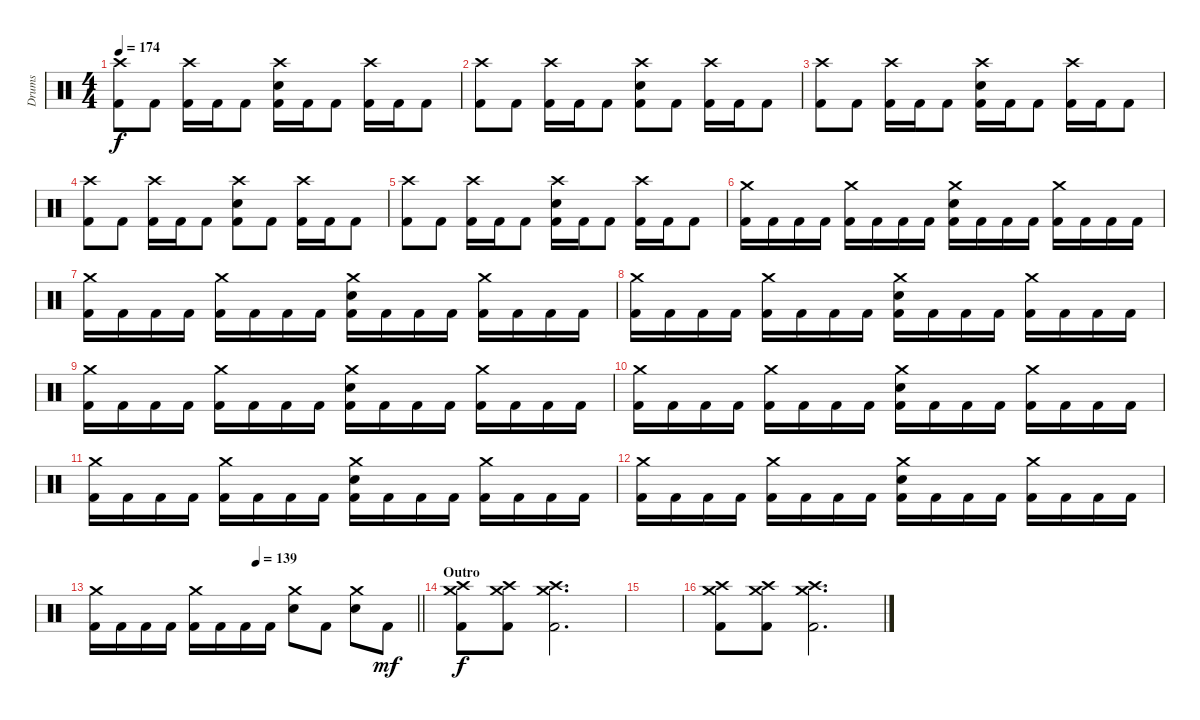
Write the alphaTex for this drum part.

\track ("Drums" "Drums") {instrument percussion}
\staff {score}
\articulation defaults
\ts (4 4)
\tempo 174
\clef neutral
\ks c
("Crash high (hit)" "Kick (hit) 2").8{dy f} "Kick (hit) 2".8 ("Crash high (hit)" "Kick (hit) 2").16 "Kick (hit) 2".16 "Kick (hit) 2".8 ("Crash high (hit)" "Electric Snare (hit)" "Kick (hit) 2").16 "Kick (hit) 2".16 "Kick (hit) 2".8 ("Crash high (hit)" "Kick (hit) 2").16 "Kick (hit) 2".16 "Kick (hit) 2".8 |
("Crash high (hit)" "Kick (hit) 2").8 "Kick (hit) 2".8 ("Crash high (hit)" "Kick (hit) 2").16 "Kick (hit) 2".16 "Kick (hit) 2".8 ("Crash high (hit)" "Electric Snare (hit)" "Kick (hit) 2").8 "Kick (hit) 2".8 ("Crash high (hit)" "Kick (hit) 2").16 "Kick (hit) 2".16 "Kick (hit) 2".8 |
("Crash high (hit)" "Kick (hit) 2").8 "Kick (hit) 2".8 ("Crash high (hit)" "Kick (hit) 2").16 "Kick (hit) 2".16 "Kick (hit) 2".8 ("Crash high (hit)" "Electric Snare (hit)" "Kick (hit) 2").16 "Kick (hit) 2".16 "Kick (hit) 2".8 ("Crash high (hit)" "Kick (hit) 2").16 "Kick (hit) 2".16 "Kick (hit) 2".8 |
("Crash high (hit)" "Kick (hit) 2").8 "Kick (hit) 2".8 ("Crash high (hit)" "Kick (hit) 2").16 "Kick (hit) 2".16 "Kick (hit) 2".8 ("Crash high (hit)" "Electric Snare (hit)" "Kick (hit) 2").8 "Kick (hit) 2".8 ("Crash high (hit)" "Kick (hit) 2").16 "Kick (hit) 2".16 "Kick (hit) 2".8 |
("Crash high (hit)" "Kick (hit) 2").8 "Kick (hit) 2".8 ("Crash high (hit)" "Kick (hit) 2").16 "Kick (hit) 2".16 "Kick (hit) 2".8 ("Crash high (hit)" "Electric Snare (hit)" "Kick (hit) 2").16 "Kick (hit) 2".16 "Kick (hit) 2".8 ("Crash high (hit)" "Kick (hit) 2").16 "Kick (hit) 2".16 "Kick (hit) 2".8 |
("Crash medium (hit)" "Kick (hit) 2").16 "Kick (hit) 2".16 "Kick (hit) 2".16 "Kick (hit) 2".16 ("Crash medium (hit)" "Kick (hit) 2").16 "Kick (hit) 2".16 "Kick (hit) 2".16 "Kick (hit) 2".16 ("Crash medium (hit)" "Electric Snare (hit)" "Kick (hit) 2").16 "Kick (hit) 2".16 "Kick (hit) 2".16 "Kick (hit) 2".16 ("Crash medium (hit)" "Kick (hit) 2").16 "Kick (hit) 2".16 "Kick (hit) 2".16 "Kick (hit) 2".16 |
("Crash medium (hit)" "Kick (hit) 2").16 "Kick (hit) 2".16 "Kick (hit) 2".16 "Kick (hit) 2".16 ("Crash medium (hit)" "Kick (hit) 2").16 "Kick (hit) 2".16 "Kick (hit) 2".16 "Kick (hit) 2".16 ("Crash medium (hit)" "Electric Snare (hit)" "Kick (hit) 2").16 "Kick (hit) 2".16 "Kick (hit) 2".16 "Kick (hit) 2".16 ("Crash medium (hit)" "Kick (hit) 2").16 "Kick (hit) 2".16 "Kick (hit) 2".16 "Kick (hit) 2".16 |
("Crash medium (hit)" "Kick (hit) 2").16 "Kick (hit) 2".16 "Kick (hit) 2".16 "Kick (hit) 2".16 ("Crash medium (hit)" "Kick (hit) 2").16 "Kick (hit) 2".16 "Kick (hit) 2".16 "Kick (hit) 2".16 ("Crash medium (hit)" "Electric Snare (hit)" "Kick (hit) 2").16 "Kick (hit) 2".16 "Kick (hit) 2".16 "Kick (hit) 2".16 ("Crash medium (hit)" "Kick (hit) 2").16 "Kick (hit) 2".16 "Kick (hit) 2".16 "Kick (hit) 2".16 |
("Crash medium (hit)" "Kick (hit) 2").16 "Kick (hit) 2".16 "Kick (hit) 2".16 "Kick (hit) 2".16 ("Crash medium (hit)" "Kick (hit) 2").16 "Kick (hit) 2".16 "Kick (hit) 2".16 "Kick (hit) 2".16 ("Crash medium (hit)" "Electric Snare (hit)" "Kick (hit) 2").16 "Kick (hit) 2".16 "Kick (hit) 2".16 "Kick (hit) 2".16 ("Crash medium (hit)" "Kick (hit) 2").16 "Kick (hit) 2".16 "Kick (hit) 2".16 "Kick (hit) 2".16 |
("Crash medium (hit)" "Kick (hit) 2").16 "Kick (hit) 2".16 "Kick (hit) 2".16 "Kick (hit) 2".16 ("Crash medium (hit)" "Kick (hit) 2").16 "Kick (hit) 2".16 "Kick (hit) 2".16 "Kick (hit) 2".16 ("Crash medium (hit)" "Electric Snare (hit)" "Kick (hit) 2").16 "Kick (hit) 2".16 "Kick (hit) 2".16 "Kick (hit) 2".16 ("Crash medium (hit)" "Kick (hit) 2").16 "Kick (hit) 2".16 "Kick (hit) 2".16 "Kick (hit) 2".16 |
("Crash medium (hit)" "Kick (hit) 2").16 "Kick (hit) 2".16 "Kick (hit) 2".16 "Kick (hit) 2".16 ("Crash medium (hit)" "Kick (hit) 2").16 "Kick (hit) 2".16 "Kick (hit) 2".16 "Kick (hit) 2".16 ("Crash medium (hit)" "Electric Snare (hit)" "Kick (hit) 2").16 "Kick (hit) 2".16 "Kick (hit) 2".16 "Kick (hit) 2".16 ("Crash medium (hit)" "Kick (hit) 2").16 "Kick (hit) 2".16 "Kick (hit) 2".16 "Kick (hit) 2".16 |
("Crash medium (hit)" "Kick (hit) 2").16 "Kick (hit) 2".16 "Kick (hit) 2".16 "Kick (hit) 2".16 ("Crash medium (hit)" "Kick (hit) 2").16 "Kick (hit) 2".16 "Kick (hit) 2".16 "Kick (hit) 2".16 ("Crash medium (hit)" "Electric Snare (hit)" "Kick (hit) 2").16 "Kick (hit) 2".16 "Kick (hit) 2".16 "Kick (hit) 2".16 ("Crash medium (hit)" "Kick (hit) 2").16 "Kick (hit) 2".16 "Kick (hit) 2".16 "Kick (hit) 2".16 |
\tempo (139 0.5)
\barLineRight lightlight
("Crash medium (hit)" "Kick (hit) 2").16 "Kick (hit) 2".16 "Kick (hit) 2".16 "Kick (hit) 2".16 ("Crash medium (hit)" "Kick (hit) 2").16 "Kick (hit) 2".16 "Kick (hit) 2".16 "Kick (hit) 2".16 ("Crash medium (hit)" "Electric Snare (hit)").8 "Kick (hit) 2".8 ("Crash medium (hit)" "Electric Snare (hit)").8 "Kick (hit) 2".8{dy mf} |
\section ("" "Outro")
("Crash high (hit)" "Crash medium (hit)" "Kick (hit) 2").8{dy f} ("Crash high (hit)" "Crash medium (hit)" "Kick (hit) 2").8 ("Crash high (hit)" "Crash medium (hit)" "Kick (hit) 2").2{d} |
|
("Crash high (hit)" "Crash medium (hit)" "Kick (hit) 2").8 ("Crash high (hit)" "Crash medium (hit)" "Kick (hit) 2").8 ("Crash high (hit)" "Crash medium (hit)" "Kick (hit) 2").2{d}
